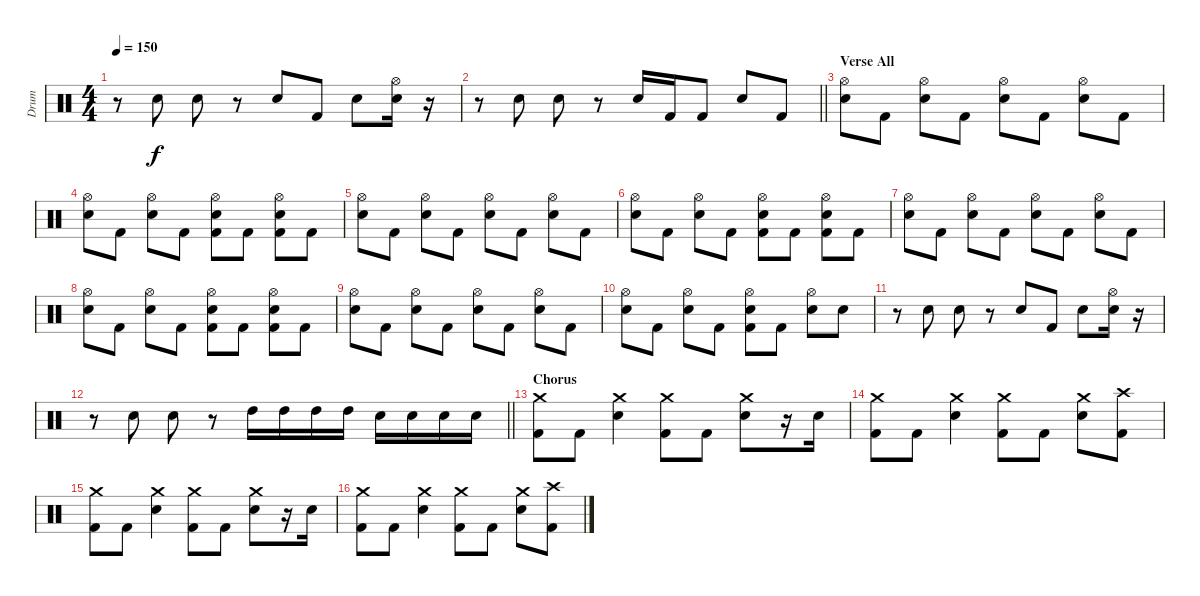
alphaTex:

\track ("Drum" "Drum") {instrument percussion}
\staff {score}
\articulation defaults
\ts (4 4)
\tempo 150
\clef neutral
\ks c
r.8{dy f} "Electric Snare (hit)".8 "Electric Snare (hit)".8 r.8 "Electric Snare (hit)".8 "Kick (hit) 2".8 "Electric Snare (hit)".8 ("Hi-Hat (open)" "Electric Snare (hit)").16 r.16 |
\barLineRight lightlight
r.8 "Electric Snare (hit)".8 "Electric Snare (hit)".8 r.8 "Electric Snare (hit)".16 "Kick (hit) 2".16 "Kick (hit) 2".8 "Electric Snare (hit)".8 "Kick (hit) 2".8 |
\section ("" "Verse All")
("Hi-Hat (open)" "Electric Snare (hit)").8 "Kick (hit) 2".8 ("Hi-Hat (open)" "Electric Snare (hit)").8 "Kick (hit) 2".8 ("Hi-Hat (open)" "Electric Snare (hit)").8 "Kick (hit) 2".8 ("Hi-Hat (open)" "Electric Snare (hit)").8 "Kick (hit) 2".8 |
("Hi-Hat (open)" "Electric Snare (hit)").8 "Kick (hit) 2".8 ("Hi-Hat (open)" "Electric Snare (hit)").8 "Kick (hit) 2".8 ("Hi-Hat (open)" "Electric Snare (hit)" "Kick (hit) 2").8 "Kick (hit) 2".8 ("Hi-Hat (open)" "Electric Snare (hit)" "Kick (hit) 2").8 "Kick (hit) 2".8 |
("Hi-Hat (open)" "Electric Snare (hit)").8 "Kick (hit) 2".8 ("Hi-Hat (open)" "Electric Snare (hit)").8 "Kick (hit) 2".8 ("Hi-Hat (open)" "Electric Snare (hit)").8 "Kick (hit) 2".8 ("Hi-Hat (open)" "Electric Snare (hit)").8 "Kick (hit) 2".8 |
("Hi-Hat (open)" "Electric Snare (hit)").8 "Kick (hit) 2".8 ("Hi-Hat (open)" "Electric Snare (hit)").8 "Kick (hit) 2".8 ("Hi-Hat (open)" "Electric Snare (hit)" "Kick (hit) 2").8 "Kick (hit) 2".8 ("Hi-Hat (open)" "Electric Snare (hit)" "Kick (hit) 2").8 "Kick (hit) 2".8 |
("Hi-Hat (open)" "Electric Snare (hit)").8 "Kick (hit) 2".8 ("Hi-Hat (open)" "Electric Snare (hit)").8 "Kick (hit) 2".8 ("Hi-Hat (open)" "Electric Snare (hit)").8 "Kick (hit) 2".8 ("Hi-Hat (open)" "Electric Snare (hit)").8 "Kick (hit) 2".8 |
("Hi-Hat (open)" "Electric Snare (hit)").8 "Kick (hit) 2".8 ("Hi-Hat (open)" "Electric Snare (hit)").8 "Kick (hit) 2".8 ("Hi-Hat (open)" "Electric Snare (hit)" "Kick (hit) 2").8 "Kick (hit) 2".8 ("Hi-Hat (open)" "Electric Snare (hit)" "Kick (hit) 2").8 "Kick (hit) 2".8 |
("Hi-Hat (open)" "Electric Snare (hit)").8 "Kick (hit) 2".8 ("Hi-Hat (open)" "Electric Snare (hit)").8 "Kick (hit) 2".8 ("Hi-Hat (open)" "Electric Snare (hit)").8 "Kick (hit) 2".8 ("Hi-Hat (open)" "Electric Snare (hit)").8 "Kick (hit) 2".8 |
("Hi-Hat (open)" "Electric Snare (hit)").8 "Kick (hit) 2".8 ("Hi-Hat (open)" "Electric Snare (hit)").8 "Kick (hit) 2".8 ("Hi-Hat (open)" "Electric Snare (hit)" "Kick (hit) 2").8 "Kick (hit) 2".8 ("Hi-Hat (open)" "Electric Snare (hit)").8 "Electric Snare (hit)".8 |
r.8 "Electric Snare (hit)".8 "Electric Snare (hit)".8 r.8 "Electric Snare (hit)".8 "Kick (hit) 2".8 "Electric Snare (hit)".8 ("Hi-Hat (open)" "Electric Snare (hit)").16 r.16 |
\barLineRight lightlight
r.8 "Electric Snare (hit)".8 "Electric Snare (hit)".8 r.8 "High Tom (hit)".16 "High Tom (hit)".16 "High Tom (hit)".16 "High Tom (hit)".16 "Electric Snare (hit)".16 "Electric Snare (hit)".16 "Electric Snare (hit)".16 "Electric Snare (hit)".16 |
\section ("" "Chorus")
("Crash medium (hit)" "Kick (hit) 2").8 "Kick (hit) 2".8 ("Crash medium (hit)" "Electric Snare (hit)").4 ("Crash medium (hit)" "Kick (hit) 2").8 "Kick (hit) 2".8 ("Crash medium (hit)" "Electric Snare (hit)").8 r.16 "Electric Snare (hit)".16 |
("Crash medium (hit)" "Kick (hit) 2").8 "Kick (hit) 2".8 ("Crash medium (hit)" "Electric Snare (hit)").4 ("Crash medium (hit)" "Kick (hit) 2").8 "Kick (hit) 2".8 ("Crash medium (hit)" "Electric Snare (hit)").8 ("Crash high (hit)" "Kick (hit) 2").8 |
("Crash medium (hit)" "Kick (hit) 2").8 "Kick (hit) 2".8 ("Crash medium (hit)" "Electric Snare (hit)").4 ("Crash medium (hit)" "Kick (hit) 2").8 "Kick (hit) 2".8 ("Crash medium (hit)" "Electric Snare (hit)").8 r.16 "Electric Snare (hit)".16 |
("Crash medium (hit)" "Kick (hit) 2").8 "Kick (hit) 2".8 ("Crash medium (hit)" "Electric Snare (hit)").4 ("Crash medium (hit)" "Kick (hit) 2").8 "Kick (hit) 2".8 ("Crash medium (hit)" "Electric Snare (hit)").8 ("Crash high (hit)" "Kick (hit) 2").8
